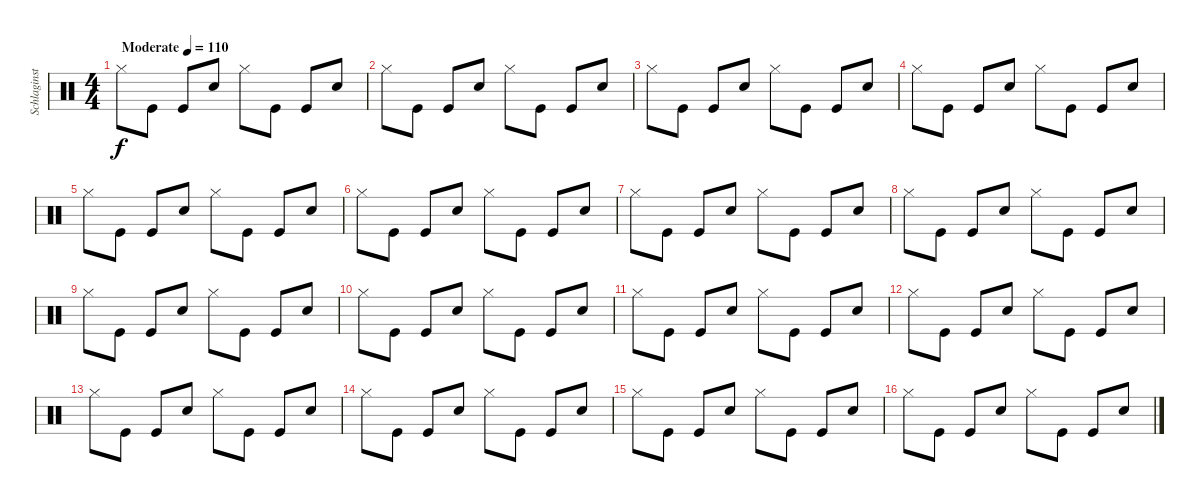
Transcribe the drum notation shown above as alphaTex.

\track ("Schlaginstrumente - Auswahl" "Schlaginst") {instrument percussion}
\staff {score}
\articulation defaults
\ts (4 4)
\tempo (110 "Moderate")
\clef neutral
\ks c "Hi-Hat (closed)".8{dy f} "Kick (hit)".8 "Kick (hit)".8 "Snare (hit) 2".8 "Hi-Hat (closed)".8 "Kick (hit)".8 "Kick (hit)".8 "Snare (hit) 2".8
|
"Hi-Hat (closed)".8 "Kick (hit)".8 "Kick (hit)".8 "Snare (hit) 2".8 "Hi-Hat (closed)".8 "Kick (hit)".8 "Kick (hit)".8 "Snare (hit) 2".8 |
"Hi-Hat (closed)".8 "Kick (hit)".8 "Kick (hit)".8 "Snare (hit) 2".8 "Hi-Hat (closed)".8 "Kick (hit)".8 "Kick (hit)".8 "Snare (hit) 2".8 |
"Hi-Hat (closed)".8 "Kick (hit)".8 "Kick (hit)".8 "Snare (hit) 2".8 "Hi-Hat (closed)".8 "Kick (hit)".8 "Kick (hit)".8 "Snare (hit) 2".8 |
"Hi-Hat (closed)".8 "Kick (hit)".8 "Kick (hit)".8 "Snare (hit) 2".8 "Hi-Hat (closed)".8 "Kick (hit)".8 "Kick (hit)".8 "Snare (hit) 2".8 |
"Hi-Hat (closed)".8 "Kick (hit)".8 "Kick (hit)".8 "Snare (hit) 2".8 "Hi-Hat (closed)".8 "Kick (hit)".8 "Kick (hit)".8 "Snare (hit) 2".8 |
"Hi-Hat (closed)".8 "Kick (hit)".8 "Kick (hit)".8 "Snare (hit) 2".8 "Hi-Hat (closed)".8 "Kick (hit)".8 "Kick (hit)".8 "Snare (hit) 2".8 |
"Hi-Hat (closed)".8 "Kick (hit)".8 "Kick (hit)".8 "Snare (hit) 2".8 "Hi-Hat (closed)".8 "Kick (hit)".8 "Kick (hit)".8 "Snare (hit) 2".8 |
"Hi-Hat (closed)".8 "Kick (hit)".8 "Kick (hit)".8 "Snare (hit) 2".8 "Hi-Hat (closed)".8 "Kick (hit)".8 "Kick (hit)".8 "Snare (hit) 2".8 |
"Hi-Hat (closed)".8 "Kick (hit)".8 "Kick (hit)".8 "Snare (hit) 2".8 "Hi-Hat (closed)".8 "Kick (hit)".8 "Kick (hit)".8 "Snare (hit) 2".8 |
"Hi-Hat (closed)".8 "Kick (hit)".8 "Kick (hit)".8 "Snare (hit) 2".8 "Hi-Hat (closed)".8 "Kick (hit)".8 "Kick (hit)".8 "Snare (hit) 2".8 |
"Hi-Hat (closed)".8 "Kick (hit)".8 "Kick (hit)".8 "Snare (hit) 2".8 "Hi-Hat (closed)".8 "Kick (hit)".8 "Kick (hit)".8 "Snare (hit) 2".8 |
"Hi-Hat (closed)".8 "Kick (hit)".8 "Kick (hit)".8 "Snare (hit) 2".8 "Hi-Hat (closed)".8 "Kick (hit)".8 "Kick (hit)".8 "Snare (hit) 2".8 |
"Hi-Hat (closed)".8 "Kick (hit)".8 "Kick (hit)".8 "Snare (hit) 2".8 "Hi-Hat (closed)".8 "Kick (hit)".8 "Kick (hit)".8 "Snare (hit) 2".8 |
"Hi-Hat (closed)".8 "Kick (hit)".8 "Kick (hit)".8 "Snare (hit) 2".8 "Hi-Hat (closed)".8 "Kick (hit)".8 "Kick (hit)".8 "Snare (hit) 2".8 |
"Hi-Hat (closed)".8 "Kick (hit)".8 "Kick (hit)".8 "Snare (hit) 2".8 "Hi-Hat (closed)".8 "Kick (hit)".8 "Kick (hit)".8 "Snare (hit) 2".8
